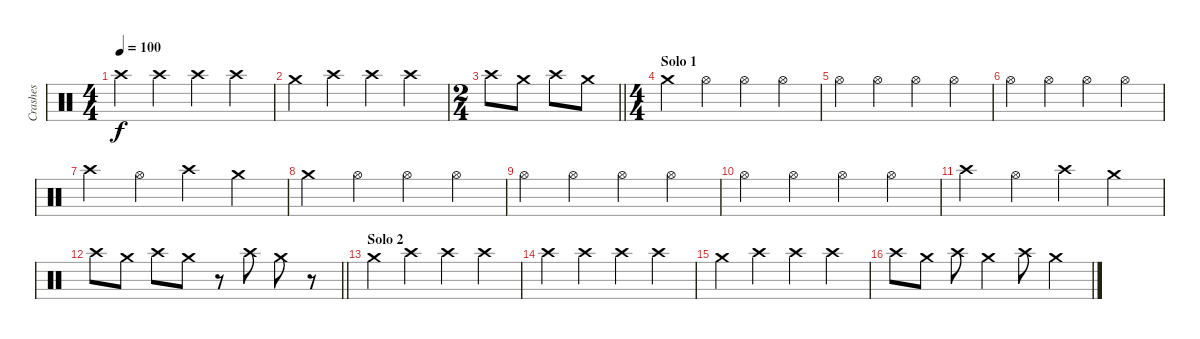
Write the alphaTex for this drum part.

\track ("Crashes" "Crashes") {instrument percussion}
\staff {score}
\articulation defaults
\ts (4 4)
\tempo 100
\clef neutral
\ks c "Crash high (hit)".4{dy f} "Crash high (hit)".4 "Crash high (hit)".4 "Crash high (hit)".4
|
"Crash medium (hit)".4 "Crash high (hit)".4 "Crash high (hit)".4 "Crash high (hit)".4 |
\ts (2 4)
\barLineRight lightlight "Crash high (hit)".8 "Crash medium (hit)".8 "Crash high (hit)".8 "Crash medium (hit)".8
|
\ts (4 4)
\section ("" "Solo 1")
"Crash medium (hit)".4 "Hi-Hat (open)".4 "Hi-Hat (open)".4 "Hi-Hat (open)".4 |
"Hi-Hat (open)".4 "Hi-Hat (open)".4 "Hi-Hat (open)".4 "Hi-Hat (open)".4 |
"Hi-Hat (open)".4 "Hi-Hat (open)".4 "Hi-Hat (open)".4 "Hi-Hat (open)".4 |
"Crash high (hit)".4 "Hi-Hat (open)".4 "Crash high (hit)".4 "Crash medium (hit)".4 |
"Crash medium (hit)".4 "Hi-Hat (open)".4 "Hi-Hat (open)".4 "Hi-Hat (open)".4 |
"Hi-Hat (open)".4 "Hi-Hat (open)".4 "Hi-Hat (open)".4 "Hi-Hat (open)".4 |
"Hi-Hat (open)".4 "Hi-Hat (open)".4 "Hi-Hat (open)".4 "Hi-Hat (open)".4 |
"Crash high (hit)".4 "Hi-Hat (open)".4 "Crash high (hit)".4 "Crash medium (hit)".4 |
\barLineRight lightlight "Crash high (hit)".8 "Crash medium (hit)".8 "Crash high (hit)".8 "Crash medium (hit)".8
r.8 "Crash high (hit)".8 "Crash medium (hit)".8 r.8 |
\section ("" "Solo 2")
"Crash medium (hit)".4 "Crash high (hit)".4 "Crash high (hit)".4 "Crash high (hit)".4 |
"Crash high (hit)".4 "Crash high (hit)".4 "Crash high (hit)".4 "Crash high (hit)".4 |
"Crash medium (hit)".4 "Crash high (hit)".4 "Crash high (hit)".4 "Crash high (hit)".4 |
"Crash high (hit)".8 "Crash medium (hit)".8 "Crash high (hit)".8 "Crash medium (hit)".4 "Crash high (hit)".8 "Crash medium (hit)".4
